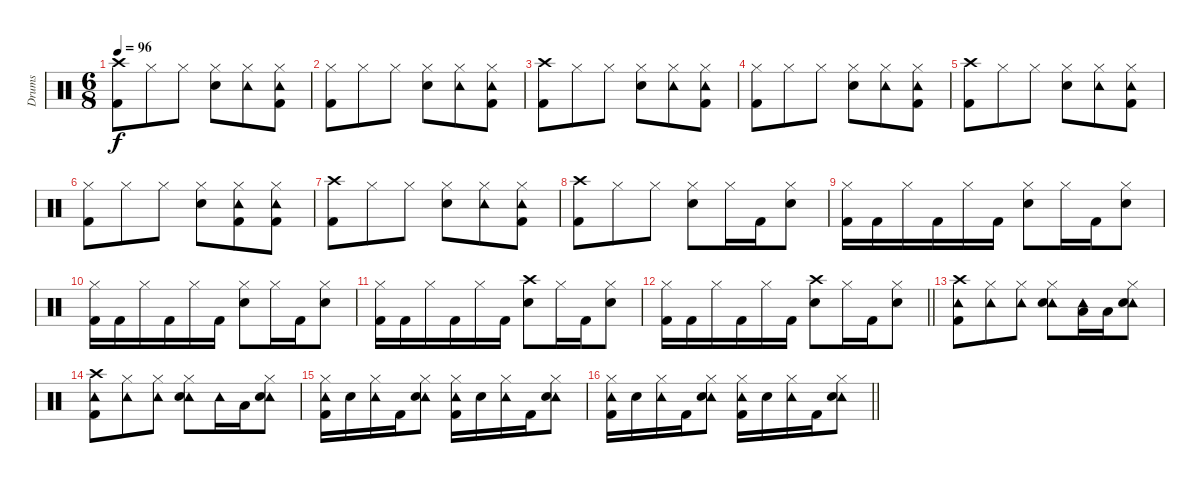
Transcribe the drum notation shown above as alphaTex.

\track ("Drums" "Drums") {instrument percussion}
\staff {score}
\articulation defaults
\ts (6 8)
\tempo 96
\clef neutral
\ks c
("Crash high (hit)" "Kick (hit) 2").8{dy f} "Hi-Hat (closed)".8 "Hi-Hat (closed)".8 ("Hi-Hat (closed)" "Snare (hit) 2").8 ("Hi-Hat (closed)" "Tambourine (hit)").8 ("Hi-Hat (closed)" "Tambourine (hit)" "Kick (hit) 2").8 |
("Hi-Hat (closed)" "Kick (hit) 2").8 "Hi-Hat (closed)".8 "Hi-Hat (closed)".8 ("Hi-Hat (closed)" "Snare (hit) 2").8 ("Hi-Hat (closed)" "Tambourine (hit)").8 ("Hi-Hat (closed)" "Tambourine (hit)" "Kick (hit) 2").8 |
("Crash high (hit)" "Kick (hit) 2").8 "Hi-Hat (closed)".8 "Hi-Hat (closed)".8 ("Hi-Hat (closed)" "Snare (hit) 2").8 ("Hi-Hat (closed)" "Tambourine (hit)").8 ("Hi-Hat (closed)" "Tambourine (hit)" "Kick (hit) 2").8 |
("Hi-Hat (closed)" "Kick (hit) 2").8 "Hi-Hat (closed)".8 "Hi-Hat (closed)".8 ("Hi-Hat (closed)" "Snare (hit) 2").8 ("Hi-Hat (closed)" "Tambourine (hit)").8 ("Hi-Hat (closed)" "Tambourine (hit)" "Kick (hit) 2").8 |
("Crash high (hit)" "Kick (hit) 2").8 "Hi-Hat (closed)".8 "Hi-Hat (closed)".8 ("Hi-Hat (closed)" "Snare (hit) 2").8 ("Hi-Hat (closed)" "Tambourine (hit)").8 ("Hi-Hat (closed)" "Tambourine (hit)" "Kick (hit) 2").8 |
("Hi-Hat (closed)" "Kick (hit) 2").8 "Hi-Hat (closed)".8 "Hi-Hat (closed)".8 ("Hi-Hat (closed)" "Snare (hit) 2").8 ("Hi-Hat (closed)" "Tambourine (hit)" "Kick (hit) 2").8 ("Hi-Hat (closed)" "Tambourine (hit)" "Kick (hit) 2").8 |
("Crash high (hit)" "Kick (hit) 2").8 "Hi-Hat (closed)".8 "Hi-Hat (closed)".8 ("Hi-Hat (closed)" "Snare (hit) 2").8 ("Hi-Hat (closed)" "Tambourine (hit)").8 ("Hi-Hat (closed)" "Tambourine (hit)" "Kick (hit) 2").8 |
("Crash high (hit)" "Kick (hit) 2").8 "Hi-Hat (closed)".8 "Hi-Hat (closed)".8 ("Hi-Hat (closed)" "Snare (hit) 2").8 "Hi-Hat (closed)".16 "Kick (hit) 2".16 ("Hi-Hat (closed)" "Snare (hit) 2").8 |
("Hi-Hat (closed)" "Kick (hit) 2").16 "Kick (hit) 2".16 "Hi-Hat (closed)".16 "Kick (hit) 2".16 "Hi-Hat (closed)".16 "Kick (hit) 2".16 ("Hi-Hat (closed)" "Snare (hit) 2").8 "Hi-Hat (closed)".16 "Kick (hit) 2".16 ("Hi-Hat (closed)" "Snare (hit) 2").8 |
("Hi-Hat (closed)" "Kick (hit) 2").16 "Kick (hit) 2".16 "Hi-Hat (closed)".16 "Kick (hit) 2".16 "Hi-Hat (closed)".16 "Kick (hit) 2".16 ("Hi-Hat (closed)" "Snare (hit) 2").8 "Hi-Hat (closed)".16 "Kick (hit) 2".16 ("Hi-Hat (closed)" "Snare (hit) 2").8 |
("Hi-Hat (closed)" "Kick (hit) 2").16 "Kick (hit) 2".16 "Hi-Hat (closed)".16 "Kick (hit) 2".16 "Hi-Hat (closed)".16 "Kick (hit) 2".16 ("Crash high (hit)" "Snare (hit) 2").8 "Hi-Hat (closed)".16 "Kick (hit) 2".16 ("Hi-Hat (closed)" "Snare (hit) 2").8 |
\barLineRight lightlight
("Hi-Hat (closed)" "Kick (hit) 2").16 "Kick (hit) 2".16 "Hi-Hat (closed)".16 "Kick (hit) 2".16 "Hi-Hat (closed)".16 "Kick (hit) 2".16 ("Crash high (hit)" "Snare (hit) 2").8 "Hi-Hat (closed)".16 "Kick (hit) 2".16 ("Hi-Hat (closed)" "Snare (hit) 2").8 |
("Crash high (hit)" "Tambourine (hit)" "Kick (hit) 2").8 ("Hi-Hat (closed)" "Tambourine (hit)").8 ("Hi-Hat (closed)" "Tambourine (hit)").8 ("Hi-Hat (closed)" "Tambourine (hit)" "Snare (hit) 2").8 ("Tambourine (hit)" "Low Tom (hit)").16 "Low Tom (hit)".16 ("Hi-Hat (closed)" "Tambourine (hit)" "Snare (hit) 2").8 |
("Crash high (hit)" "Tambourine (hit)" "Kick (hit) 2").8 ("Hi-Hat (closed)" "Tambourine (hit)").8 ("Hi-Hat (closed)" "Tambourine (hit)").8 ("Hi-Hat (closed)" "Tambourine (hit)" "Snare (hit) 2").8 "Tambourine (hit)".16 "Low Tom (hit)".16 ("Hi-Hat (closed)" "Tambourine (hit)" "Snare (hit) 2").8 |
("Hi-Hat (closed)" "Tambourine (hit)" "Kick (hit) 2").16 "Snare (hit) 2".16 ("Hi-Hat (closed)" "Tambourine (hit)").16 "Kick (hit) 2".16 ("Hi-Hat (closed)" "Tambourine (hit)" "Snare (hit) 2").8 ("Hi-Hat (closed)" "Tambourine (hit)" "Kick (hit) 2").16 "Snare (hit) 2".16 ("Hi-Hat (closed)" "Tambourine (hit)").16 "Kick (hit) 2".16 ("Hi-Hat (closed)" "Tambourine (hit)" "Snare (hit) 2").8 |
\barLineRight lightlight
("Hi-Hat (closed)" "Tambourine (hit)" "Kick (hit) 2").16 "Snare (hit) 2".16 ("Hi-Hat (closed)" "Tambourine (hit)").16 "Kick (hit) 2".16 ("Hi-Hat (closed)" "Tambourine (hit)" "Snare (hit) 2").8 ("Hi-Hat (closed)" "Tambourine (hit)" "Kick (hit) 2").16 "Snare (hit) 2".16 ("Hi-Hat (closed)" "Tambourine (hit)").16 "Kick (hit) 2".16 ("Hi-Hat (closed)" "Tambourine (hit)" "Snare (hit) 2").8
